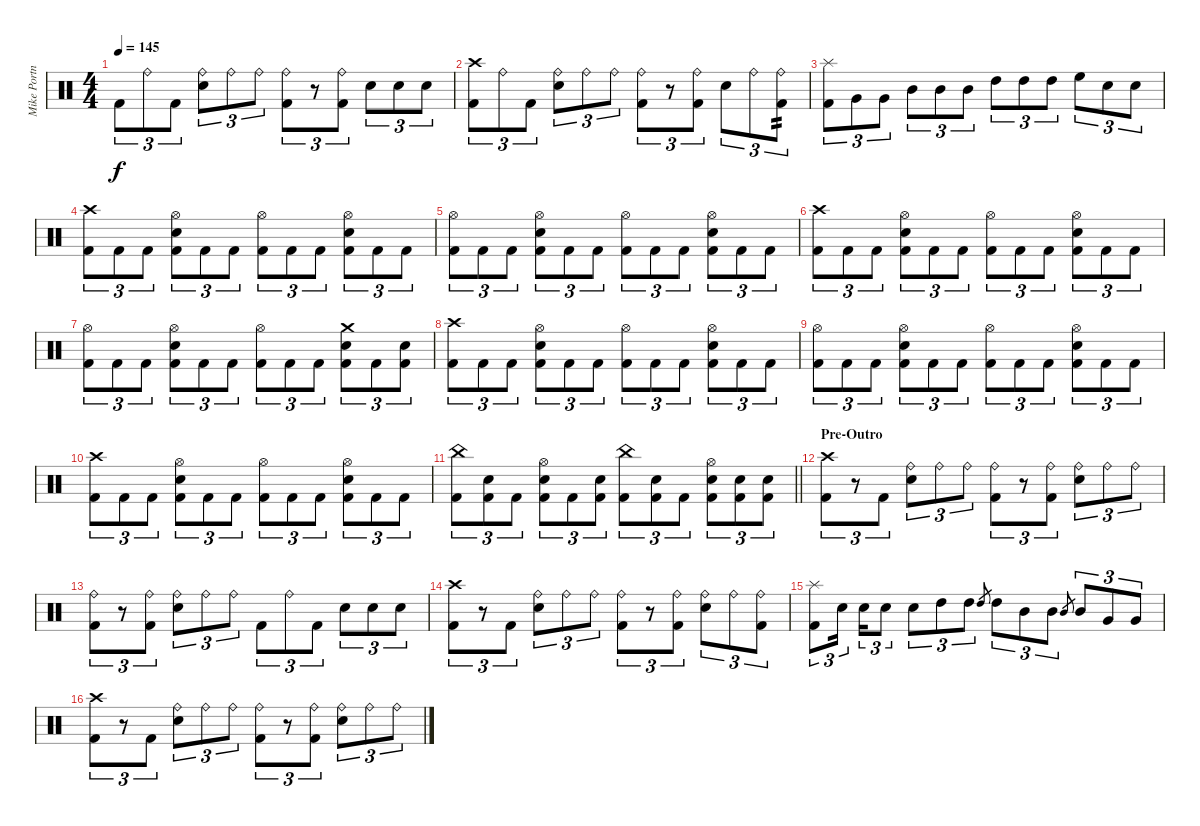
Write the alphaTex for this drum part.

\track ("Mike Portnoy" "Mike Portn") {instrument percussion}
\staff {score}
\articulation defaults
\ts (4 4)
\tempo 145
\clef neutral
\ks c "Kick (hit) 2".8{tu (3 2) dy f} "Ride (bell)".8{tu (3 2)} "Kick (hit) 2".8{tu (3 2)}
("Ride (bell)" "Electric Snare (hit)").8{tu (3 2)} "Ride (bell)".8{tu (3 2)} "Ride (bell)".8{tu (3 2)} ("Ride (bell)" "Kick (hit) 2").8{tu (3 2)} r.8{tu (3 2)} ("Ride (bell)" "Kick (hit) 2").8{tu (3 2)} "Electric Snare (hit)".8{tu (3 2)} "Electric Snare (hit)".8{tu (3 2)} "Electric Snare (hit)".8{tu (3 2)} |
("Crash high (hit)" "Kick (hit) 2").8{tu (3 2)} "Ride (bell)".8{tu (3 2)} "Kick (hit) 2".8{tu (3 2)} ("Ride (bell)" "Electric Snare (hit)").8{tu (3 2)} "Ride (bell)".8{tu (3 2)} "Ride (bell)".8{tu (3 2)} ("Ride (bell)" "Kick (hit) 2").8{tu (3 2)} r.8{tu (3 2)} ("Ride (bell)" "Kick (hit) 2").8{tu (3 2)} "Electric Snare (hit)".8{tu (3 2)} "Ride (bell)".8{tu (3 2)} ("Ride (bell)" "Kick (hit) 2").8{tu (3 2) tp 2} |
("Splash (hit)" "Kick (hit) 2").8{tu (3 2)} "Very Low Tom (hit)".8{tu (3 2)} "Very Low Tom (hit)".8{tu (3 2)} "Mid Tom (hit)".8{tu (3 2)} "Mid Tom (hit)".8{tu (3 2)} "Mid Tom (hit)".8{tu (3 2)} "High Tom (hit)".8{tu (3 2)} "High Tom (hit)".8{tu (3 2)} "High Tom (hit)".8{tu (3 2)} "High Floor Tom (hit)".8{tu (3 2)} "Electric Snare (hit)".8{tu (3 2)} "Electric Snare (hit)".8{tu (3 2)} |
("Crash high (hit)" "Kick (hit) 2").8{tu (3 2)} "Kick (hit) 2".8{tu (3 2)} "Kick (hit) 2".8{tu (3 2)} ("Hi-Hat (open)" "Electric Snare (hit)" "Kick (hit) 2").8{tu (3 2)} "Kick (hit) 2".8{tu (3 2)} "Kick (hit) 2".8{tu (3 2)} ("Hi-Hat (open)" "Kick (hit) 2").8{tu (3 2)} "Kick (hit) 2".8{tu (3 2)} "Kick (hit) 2".8{tu (3 2)} ("Hi-Hat (open)" "Electric Snare (hit)" "Kick (hit) 2").8{tu (3 2)} "Kick (hit) 2".8{tu (3 2)} "Kick (hit) 2".8{tu (3 2)} |
("Hi-Hat (open)" "Kick (hit) 2").8{tu (3 2)} "Kick (hit) 2".8{tu (3 2)} "Kick (hit) 2".8{tu (3 2)} ("Hi-Hat (open)" "Electric Snare (hit)" "Kick (hit) 2").8{tu (3 2)} "Kick (hit) 2".8{tu (3 2)} "Kick (hit) 2".8{tu (3 2)} ("Hi-Hat (open)" "Kick (hit) 2").8{tu (3 2)} "Kick (hit) 2".8{tu (3 2)} "Kick (hit) 2".8{tu (3 2)} ("Hi-Hat (open)" "Electric Snare (hit)" "Kick (hit) 2").8{tu (3 2)} "Kick (hit) 2".8{tu (3 2)} "Kick (hit) 2".8{tu (3 2)} |
("Crash high (hit)" "Kick (hit) 2").8{tu (3 2)} "Kick (hit) 2".8{tu (3 2)} "Kick (hit) 2".8{tu (3 2)} ("Hi-Hat (open)" "Electric Snare (hit)" "Kick (hit) 2").8{tu (3 2)} "Kick (hit) 2".8{tu (3 2)} "Kick (hit) 2".8{tu (3 2)} ("Hi-Hat (open)" "Kick (hit) 2").8{tu (3 2)} "Kick (hit) 2".8{tu (3 2)} "Kick (hit) 2".8{tu (3 2)} ("Hi-Hat (open)" "Electric Snare (hit)" "Kick (hit) 2").8{tu (3 2)} "Kick (hit) 2".8{tu (3 2)} "Kick (hit) 2".8{tu (3 2)} |
("Hi-Hat (open)" "Kick (hit) 2").8{tu (3 2)} "Kick (hit) 2".8{tu (3 2)} "Kick (hit) 2".8{tu (3 2)} ("Hi-Hat (open)" "Electric Snare (hit)" "Kick (hit) 2").8{tu (3 2)} "Kick (hit) 2".8{tu (3 2)} "Kick (hit) 2".8{tu (3 2)} ("Hi-Hat (open)" "Kick (hit) 2").8{tu (3 2)} "Kick (hit) 2".8{tu (3 2)} "Kick (hit) 2".8{tu (3 2)} ("Crash medium (hit)" "Electric Snare (hit)" "Kick (hit) 2").8{tu (3 2)} "Kick (hit) 2".8{tu (3 2)} ("Electric Snare (hit)" "Kick (hit) 2").8{tu (3 2)} |
("Crash high (hit)" "Kick (hit) 2").8{tu (3 2)} "Kick (hit) 2".8{tu (3 2)} "Kick (hit) 2".8{tu (3 2)} ("Hi-Hat (open)" "Electric Snare (hit)" "Kick (hit) 2").8{tu (3 2)} "Kick (hit) 2".8{tu (3 2)} "Kick (hit) 2".8{tu (3 2)} ("Hi-Hat (open)" "Kick (hit) 2").8{tu (3 2)} "Kick (hit) 2".8{tu (3 2)} "Kick (hit) 2".8{tu (3 2)} ("Hi-Hat (open)" "Electric Snare (hit)" "Kick (hit) 2").8{tu (3 2)} "Kick (hit) 2".8{tu (3 2)} "Kick (hit) 2".8{tu (3 2)} |
("Hi-Hat (open)" "Kick (hit) 2").8{tu (3 2)} "Kick (hit) 2".8{tu (3 2)} "Kick (hit) 2".8{tu (3 2)} ("Hi-Hat (open)" "Electric Snare (hit)" "Kick (hit) 2").8{tu (3 2)} "Kick (hit) 2".8{tu (3 2)} "Kick (hit) 2".8{tu (3 2)} ("Hi-Hat (open)" "Kick (hit) 2").8{tu (3 2)} "Kick (hit) 2".8{tu (3 2)} "Kick (hit) 2".8{tu (3 2)} ("Hi-Hat (open)" "Electric Snare (hit)" "Kick (hit) 2").8{tu (3 2)} "Kick (hit) 2".8{tu (3 2)} "Kick (hit) 2".8{tu (3 2)} |
("Crash high (hit)" "Kick (hit) 2").8{tu (3 2)} "Kick (hit) 2".8{tu (3 2)} "Kick (hit) 2".8{tu (3 2)} ("Hi-Hat (open)" "Electric Snare (hit)" "Kick (hit) 2").8{tu (3 2)} "Kick (hit) 2".8{tu (3 2)} "Kick (hit) 2".8{tu (3 2)} ("Hi-Hat (open)" "Kick (hit) 2").8{tu (3 2)} "Kick (hit) 2".8{tu (3 2)} "Kick (hit) 2".8{tu (3 2)} ("Hi-Hat (open)" "Electric Snare (hit)" "Kick (hit) 2").8{tu (3 2)} "Kick (hit) 2".8{tu (3 2)} "Kick (hit) 2".8{tu (3 2)} |
\barLineRight lightlight
("China (hit)" "Kick (hit) 2").8{tu (3 2)} ("Electric Snare (hit)" "Kick (hit) 2").8{tu (3 2)} "Kick (hit) 2".8{tu (3 2)} ("Hi-Hat (open)" "Electric Snare (hit)" "Kick (hit) 2").8{tu (3 2)} "Kick (hit) 2".8{tu (3 2)} ("Electric Snare (hit)" "Kick (hit) 2").8{tu (3 2)} ("China (hit)" "Kick (hit) 2").8{tu (3 2)} ("Electric Snare (hit)" "Kick (hit) 2").8{tu (3 2)} "Kick (hit) 2".8{tu (3 2)} ("Hi-Hat (open)" "Electric Snare (hit)" "Kick (hit) 2").8{tu (3 2)} ("Electric Snare (hit)" "Kick (hit) 2").8{tu (3 2)} ("Electric Snare (hit)" "Kick (hit) 2").8{tu (3 2)} |
\section ("" "Pre-Outro")
("Crash high (hit)" "Kick (hit) 2").8{tu (3 2)} r.8{tu (3 2)} "Kick (hit) 2".8{tu (3 2)} ("Ride (bell)" "Electric Snare (hit)").8{tu (3 2)} "Ride (bell)".8{tu (3 2)} "Ride (bell)".8{tu (3 2)} ("Ride (bell)" "Kick (hit) 2").8{tu (3 2)} r.8{tu (3 2)} ("Ride (bell)" "Kick (hit) 2").8{tu (3 2)} ("Ride (bell)" "Electric Snare (hit)").8{tu (3 2)} "Ride (bell)".8{tu (3 2)} "Ride (bell)".8{tu (3 2)} |
("Ride (bell)" "Kick (hit) 2").8{tu (3 2)} r.8{tu (3 2)} ("Ride (bell)" "Kick (hit) 2").8{tu (3 2)} ("Ride (bell)" "Electric Snare (hit)").8{tu (3 2)} "Ride (bell)".8{tu (3 2)} "Ride (bell)".8{tu (3 2)} "Kick (hit) 2".8{tu (3 2)} "Ride (bell)".8{tu (3 2)} "Kick (hit) 2".8{tu (3 2)} "Electric Snare (hit)".8{tu (3 2)} "Electric Snare (hit)".8{tu (3 2)} "Electric Snare (hit)".8{tu (3 2)} |
("Crash high (hit)" "Kick (hit) 2").8{tu (3 2)} r.8{tu (3 2)} "Kick (hit) 2".8{tu (3 2)} ("Ride (bell)" "Electric Snare (hit)").8{tu (3 2)} "Ride (bell)".8{tu (3 2)} "Ride (bell)".8{tu (3 2)} ("Ride (bell)" "Kick (hit) 2").8{tu (3 2)} r.8{tu (3 2)} ("Ride (bell)" "Kick (hit) 2").8{tu (3 2)} ("Ride (bell)" "Electric Snare (hit)").8{tu (3 2)} "Ride (bell)".8{tu (3 2)} ("Ride (bell)" "Kick (hit) 2").8{tu (3 2)} |
("Splash (hit)" "Kick (hit) 2").8{tu (3 2)} "Electric Snare (hit)".16{tu (3 2) beam splitsecondary} "Electric Snare (hit)".16{tu (3 2)} "Electric Snare (hit)".8{tu (3 2)} "Electric Snare (hit)".8{tu (3 2)} "High Tom (hit)".8{tu (3 2)} "High Tom (hit)".8{tu (3 2)} "High Tom (hit)".8{gr} "High Tom (hit)".8{tu (3 2)} "Mid Tom (hit)".8{tu (3 2)} "Mid Tom (hit)".8{tu (3 2)} "Mid Tom (hit)".8{gr} "Mid Tom (hit)".8{tu (3 2)} "Very Low Tom (hit)".8{tu (3 2)} "Very Low Tom (hit)".8{tu (3 2)} |
("Crash high (hit)" "Kick (hit) 2").8{tu (3 2)} r.8{tu (3 2)} "Kick (hit) 2".8{tu (3 2)} ("Ride (bell)" "Electric Snare (hit)").8{tu (3 2)} "Ride (bell)".8{tu (3 2)} "Ride (bell)".8{tu (3 2)} ("Ride (bell)" "Kick (hit) 2").8{tu (3 2)} r.8{tu (3 2)} ("Ride (bell)" "Kick (hit) 2").8{tu (3 2)} ("Ride (bell)" "Electric Snare (hit)").8{tu (3 2)} "Ride (bell)".8{tu (3 2)} "Ride (bell)".8{tu (3 2)}
